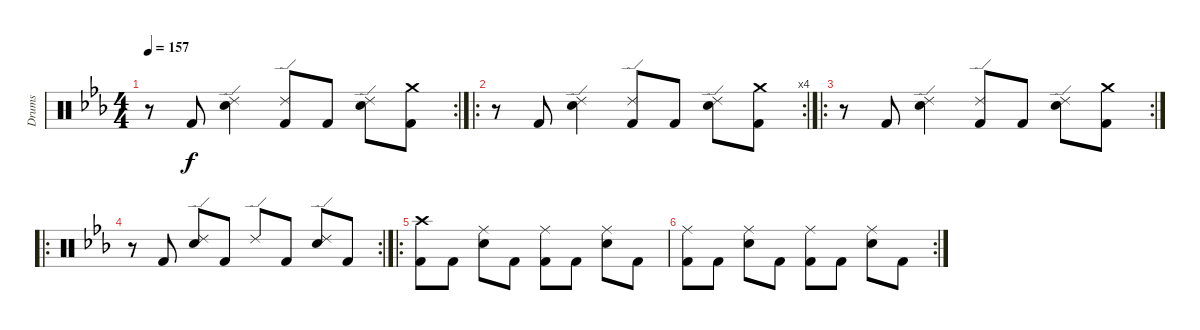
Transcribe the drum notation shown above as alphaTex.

\track ("Drums" "Drums") {instrument percussion}
\staff {score}
\articulation defaults
\rc 2
\ts (4 4)
\tempo 157
\clef neutral
\ks cminor
r.8{dy f} "Kick (hit) 2".8 ("Ride (edge) 2" "Electric Snare (hit)").4 ("Ride (edge) 2" "Kick (hit) 2").8 "Kick (hit) 2".8 ("Ride (edge) 2" "Electric Snare (hit)").8 ("Crash medium (hit)" "Kick (hit) 2").8 |
\ro
\rc 4
r.8 "Kick (hit) 2".8 ("Ride (edge) 2" "Electric Snare (hit)").4 ("Ride (edge) 2" "Kick (hit) 2").8 "Kick (hit) 2".8 ("Ride (edge) 2" "Electric Snare (hit)").8 ("Crash medium (hit)" "Kick (hit) 2").8 |
\ro
\rc 2
r.8 "Kick (hit) 2".8 ("Ride (edge) 2" "Electric Snare (hit)").4 ("Ride (edge) 2" "Kick (hit) 2").8 "Kick (hit) 2".8 ("Ride (edge) 2" "Electric Snare (hit)").8 ("Crash medium (hit)" "Kick (hit) 2").8 |
\ro
\rc 2
r.8 "Kick (hit) 2".8 ("Ride (edge) 2" "Electric Snare (hit)").8 "Kick (hit) 2".8 "Ride (edge) 2".8 "Kick (hit) 2".8 ("Ride (edge) 2" "Electric Snare (hit)").8 "Kick (hit) 2".8 |
\ro
("Crash high (hit)" "Kick (hit) 2").8 "Kick (hit) 2".8 ("Ride (middle)" "Electric Snare (hit)").8 "Kick (hit) 2".8 ("Ride (middle)" "Kick (hit) 2").8 "Kick (hit) 2".8 ("Ride (middle)" "Electric Snare (hit)").8 "Kick (hit) 2".8 |
\rc 2
("Ride (middle)" "Kick (hit) 2").8 "Kick (hit) 2".8 ("Ride (middle)" "Electric Snare (hit)").8 "Kick (hit) 2".8 ("Ride (middle)" "Kick (hit) 2").8 "Kick (hit) 2".8 ("Ride (middle)" "Electric Snare (hit)").8 "Kick (hit) 2".8
